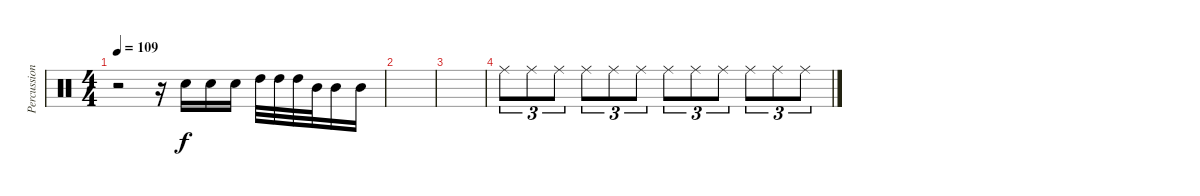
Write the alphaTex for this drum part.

\track ("Percussions" "Percussion") {instrument percussion}
\staff {score}
\articulation defaults
\ts (4 4)
\tempo 109
\clef neutral
\ks c
r.2{dy f} r.16 "Electric Snare (hit)".16 "Electric Snare (hit)".16 "Electric Snare (hit)".16 "High Tom (hit)".32 "High Tom (hit)".32 "High Tom (hit)".32 "Mid Tom (hit)".32 "Mid Tom (hit)".16 "Mid Tom (hit)".16 |
|
|
"Ride (middle)".8{tu (3 2)} "Ride (middle)".8{tu (3 2)} "Ride (middle)".8{tu (3 2)} "Ride (middle)".8{tu (3 2)} "Ride (middle)".8{tu (3 2)} "Ride (middle)".8{tu (3 2)} "Ride (middle)".8{tu (3 2)} "Ride (middle)".8{tu (3 2)} "Ride (middle)".8{tu (3 2)} "Ride (middle)".8{tu (3 2)} "Ride (middle)".8{tu (3 2)} "Ride (middle)".8{tu (3 2)}
